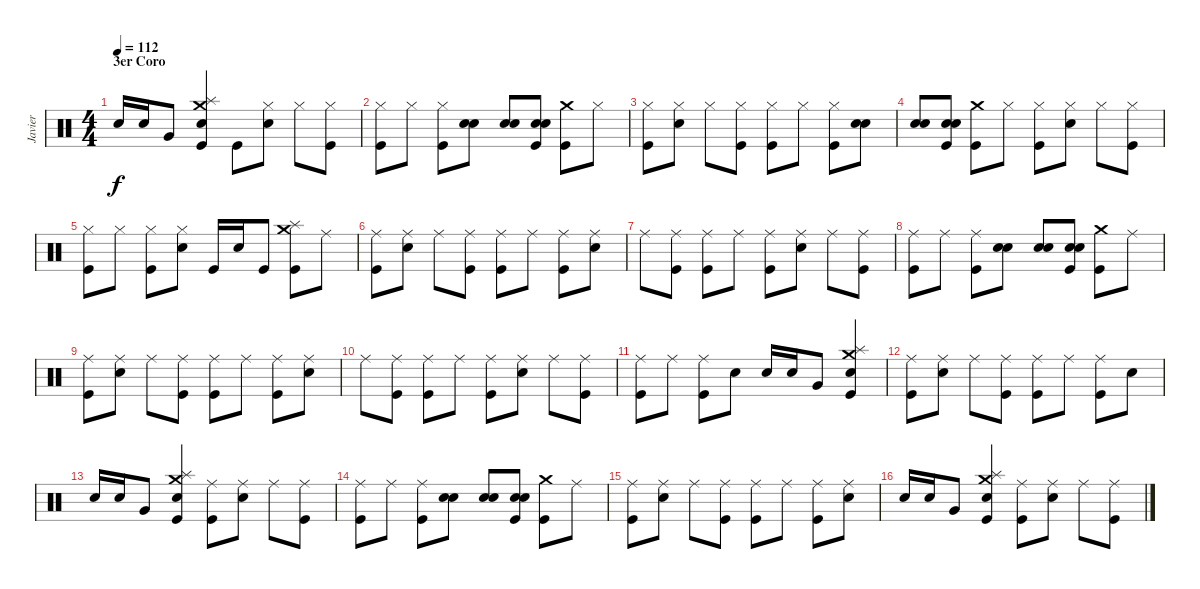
\track ("Javier" "Javier") {instrument percussion}
\staff {score}
\articulation defaults
\ts (4 4)
\section ("" "3er Coro")
\tempo 112
\clef neutral
\ks c "Snare (hit) 2".16{dy f} "Snare (hit) 2".16 "Very Low Tom (hit)".8
("Crash medium (hit)" "Splash (hit)" "Snare (hit) 2" "Kick (hit)").4 "Kick (hit)".8 ("Hi-Hat (closed)" "Snare (hit) 2").8 "Hi-Hat (closed)".8 ("Hi-Hat (closed)" "Kick (hit)").8 |
("Hi-Hat (closed)" "Kick (hit)").8 "Hi-Hat (closed)".8 ("Hi-Hat (closed)" "Kick (hit)").8 ("Snare (hit) 2" "Snare (hit) 2").8 ("Snare (hit) 2" "Snare (hit) 2").8 ("Snare (hit) 2" "Snare (hit) 2" "Kick (hit)").8 ("Crash medium (hit)" "Kick (hit)").8 "Hi-Hat (closed)".8 |
("Hi-Hat (closed)" "Kick (hit)").8 ("Hi-Hat (closed)" "Snare (hit) 2").8 "Hi-Hat (closed)".8 ("Hi-Hat (closed)" "Kick (hit)").8 ("Hi-Hat (closed)" "Kick (hit)").8 "Hi-Hat (closed)".8 ("Hi-Hat (closed)" "Kick (hit)").8 ("Snare (hit) 2" "Snare (hit) 2").8 |
("Snare (hit) 2" "Snare (hit) 2").8 ("Snare (hit) 2" "Snare (hit) 2" "Kick (hit)").8 ("Crash medium (hit)" "Kick (hit)").8 "Hi-Hat (closed)".8 ("Hi-Hat (closed)" "Kick (hit)").8 ("Hi-Hat (closed)" "Snare (hit) 2").8 "Hi-Hat (closed)".8 ("Hi-Hat (closed)" "Kick (hit)").8 |
("Hi-Hat (closed)" "Kick (hit)").8 "Hi-Hat (closed)".8 ("Hi-Hat (closed)" "Kick (hit)").8 ("Hi-Hat (closed)" "Snare (hit) 2").8 "Kick (hit)".16 "Snare (hit) 2".16 "Kick (hit)".8 ("Crash medium (hit)" "Splash (hit)" "Kick (hit)").8 "Ride (middle)".8 |
("Ride (middle)" "Kick (hit)").8 ("Ride (middle)" "Snare (hit) 2").8 "Ride (middle)".8 ("Ride (middle)" "Kick (hit)").8 ("Ride (middle)" "Kick (hit)").8 "Ride (middle)".8 ("Ride (middle)" "Kick (hit)").8 ("Ride (middle)" "Snare (hit) 2").8 |
"Ride (middle)".8 ("Ride (middle)" "Kick (hit)").8 ("Ride (middle)" "Kick (hit)").8 "Ride (middle)".8 ("Ride (middle)" "Kick (hit)").8 ("Ride (middle)" "Snare (hit) 2").8 "Ride (middle)".8 ("Ride (middle)" "Kick (hit)").8 |
("Ride (middle)" "Kick (hit)").8 "Ride (middle)".8 ("Ride (middle)" "Kick (hit)").8 ("Snare (hit) 2" "Snare (hit) 2").8 ("Snare (hit) 2" "Snare (hit) 2").8 ("Snare (hit) 2" "Snare (hit) 2" "Kick (hit)").8 ("Crash medium (hit)" "Kick (hit)").8 "Ride (middle)".8 |
("Ride (middle)" "Kick (hit)").8 ("Ride (middle)" "Snare (hit) 2").8 "Ride (middle)".8 ("Ride (middle)" "Kick (hit)").8 ("Ride (middle)" "Kick (hit)").8 "Ride (middle)".8 ("Ride (middle)" "Kick (hit)").8 ("Ride (middle)" "Snare (hit) 2").8 |
"Ride (middle)".8 ("Ride (middle)" "Kick (hit)").8 ("Ride (middle)" "Kick (hit)").8 "Ride (middle)".8 ("Ride (middle)" "Kick (hit)").8 ("Ride (middle)" "Snare (hit) 2").8 "Ride (middle)".8 ("Ride (middle)" "Kick (hit)").8 |
("Ride (middle)" "Kick (hit)").8 "Ride (middle)".8 ("Ride (middle)" "Kick (hit)").8 "Snare (hit) 2".8 "Snare (hit) 2".16 "Snare (hit) 2".16 "Very Low Tom (hit)".8 ("Crash medium (hit)" "Splash (hit)" "Snare (hit) 2" "Kick (hit)").4 |
("Ride (middle)" "Kick (hit)").8 ("Ride (middle)" "Snare (hit) 2").8 "Ride (middle)".8 ("Ride (middle)" "Kick (hit)").8 ("Ride (middle)" "Kick (hit)").8 "Ride (middle)".8 ("Ride (middle)" "Kick (hit)").8 "Snare (hit) 2".8 |
"Snare (hit) 2".16 "Snare (hit) 2".16 "Very Low Tom (hit)".8 ("Crash medium (hit)" "Splash (hit)" "Snare (hit) 2" "Kick (hit)").4 ("Ride (middle)" "Kick (hit)").8 ("Ride (middle)" "Snare (hit) 2").8 "Ride (middle)".8 ("Ride (middle)" "Kick (hit)").8 |
("Ride (middle)" "Kick (hit)").8 "Ride (middle)".8 ("Ride (middle)" "Kick (hit)").8 ("Snare (hit) 2" "Snare (hit) 2").8 ("Snare (hit) 2" "Snare (hit) 2").8 ("Snare (hit) 2" "Snare (hit) 2" "Kick (hit)").8 ("Crash medium (hit)" "Kick (hit)").8 "Ride (middle)".8 |
("Ride (middle)" "Kick (hit)").8 ("Ride (middle)" "Snare (hit) 2").8 "Ride (middle)".8 ("Ride (middle)" "Kick (hit)").8 ("Ride (middle)" "Kick (hit)").8 "Ride (middle)".8 ("Ride (middle)" "Kick (hit)").8 ("Ride (middle)" "Snare (hit) 2").8 |
"Snare (hit) 2".16 "Snare (hit) 2".16 "Very Low Tom (hit)".8 ("Crash medium (hit)" "Splash (hit)" "Snare (hit) 2" "Kick (hit)").4 ("Ride (middle)" "Kick (hit)").8 ("Ride (middle)" "Snare (hit) 2").8 "Ride (middle)".8 ("Ride (middle)" "Kick (hit)").8
